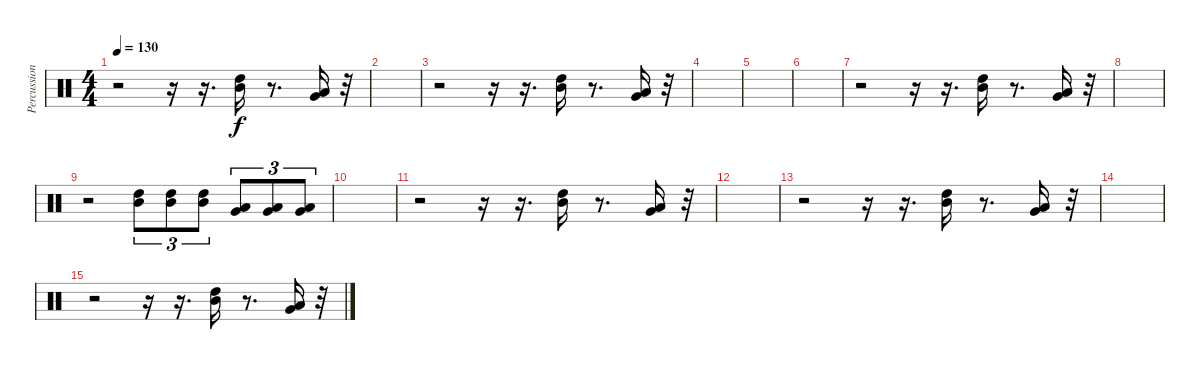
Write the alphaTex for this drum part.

\track ("Percussion" "Percussion") {instrument percussion bank 177}
\staff {score}
\articulation defaults
\ts (4 4)
\tempo 130
\clef neutral
\ks c
r.2{dy f} r.16 r.16{d} ("High Tom (hit)" "Mid Tom (hit)").16 r.8{d} ("Low Tom (hit)" "Very Low Tom (hit)").16 r.32 |
|
r.2 r.16 r.16{d} ("High Tom (hit)" "Mid Tom (hit)").16 r.8{d} ("Low Tom (hit)" "Very Low Tom (hit)").16 r.32 |
|
|
|
r.2 r.16 r.16{d} ("High Tom (hit)" "Mid Tom (hit)").16 r.8{d} ("Low Tom (hit)" "Very Low Tom (hit)").16 r.32 |
|
r.2 ("High Tom (hit)" "Mid Tom (hit)").8{tu (3 2)} ("High Tom (hit)" "Mid Tom (hit)").8{tu (3 2)} ("High Tom (hit)" "Mid Tom (hit)").8{tu (3 2)} ("Low Tom (hit)" "Very Low Tom (hit)").8{tu (3 2)} ("Low Tom (hit)" "Very Low Tom (hit)").8{tu (3 2)} ("Low Tom (hit)" "Very Low Tom (hit)").8{tu (3 2)} |
|
r.2 r.16 r.16{d} ("High Tom (hit)" "Mid Tom (hit)").16 r.8{d} ("Low Tom (hit)" "Very Low Tom (hit)").16 r.32 |
|
r.2 r.16 r.16{d} ("High Tom (hit)" "Mid Tom (hit)").16 r.8{d} ("Low Tom (hit)" "Very Low Tom (hit)").16 r.32 |
|
r.2 r.16 r.16{d} ("High Tom (hit)" "Mid Tom (hit)").16 r.8{d} ("Low Tom (hit)" "Very Low Tom (hit)").16 r.32
